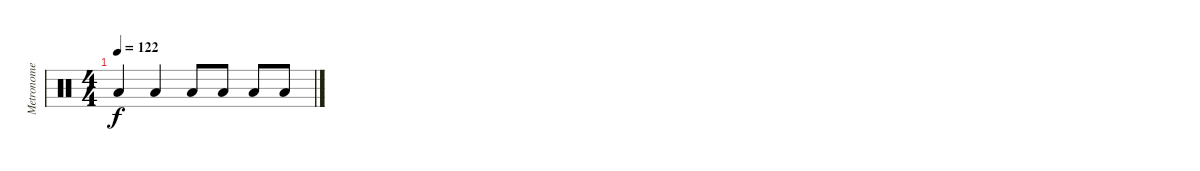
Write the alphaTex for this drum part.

\track ("Metronome" "Metronome") {instrument percussion}
\staff {score}
\articulation defaults
\ts (4 4)
\tempo 122
\clef neutral
\ks c "Low Floor Tom (hit)".4{dy f} "Low Floor Tom (hit)".4 "Low Floor Tom (hit)".8 "Low Floor Tom (hit)".8 "Low Floor Tom (hit)".8 "Low Floor Tom (hit)".8
